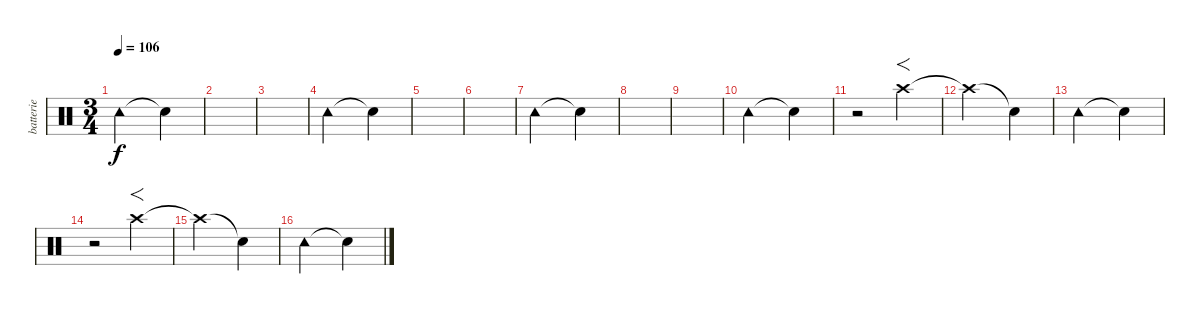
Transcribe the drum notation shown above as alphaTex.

\track ("batterie" "batterie") {instrument percussion}
\staff {score}
\articulation defaults
\ts (3 4)
\tempo 106
\clef neutral
\ks c "Tambourine (hit)".2{dy f} "Snare (hit)"{t}.4
|
|
|
"Tambourine (hit)".2 "Snare (hit)"{t}.4 |
|
|
"Tambourine (hit)".2 "Snare (hit)"{t}.4 |
|
|
"Tambourine (hit)".2 "Snare (hit)"{t}.4 |
r.2 "Crash high (hit)".4{f} |
"Crash high (hit)"{t}.2 "Snare (hit)"{t}.4 |
"Tambourine (hit)".2 "Snare (hit)"{t}.4 |
r.2 "Crash high (hit)".4{f} |
"Crash high (hit)"{t}.2 "Snare (hit)"{t}.4 |
"Tambourine (hit)".2 "Snare (hit)"{t}.4
